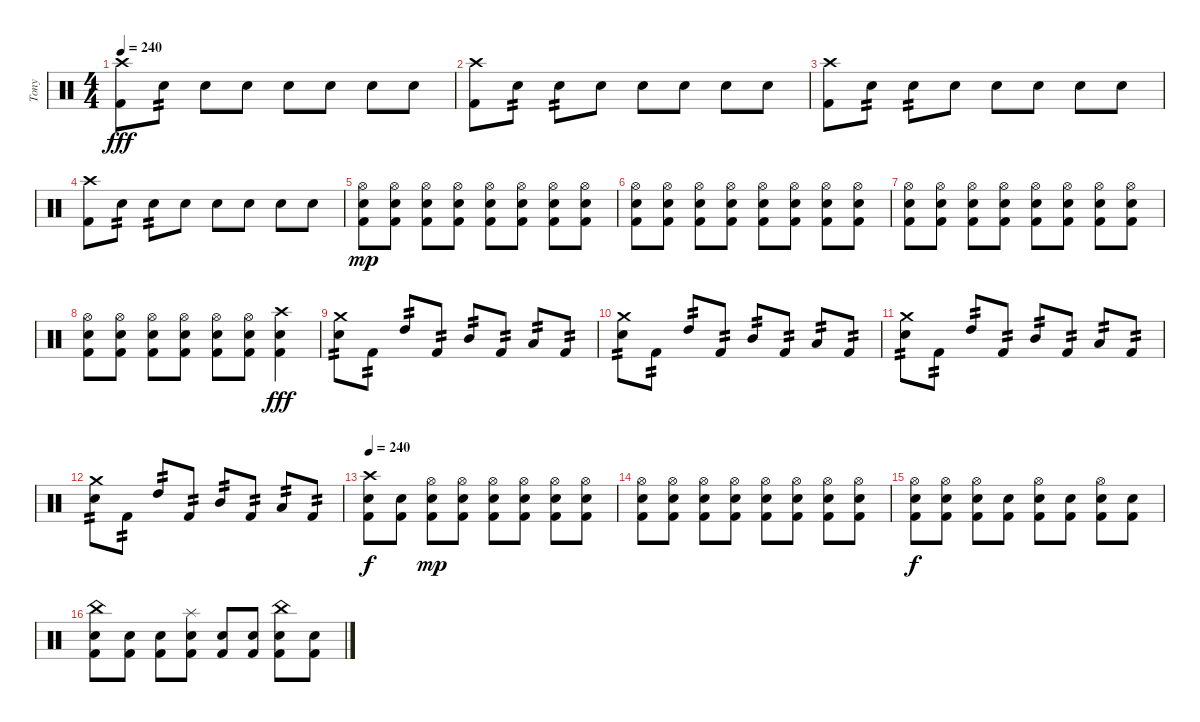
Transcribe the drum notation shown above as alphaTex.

\track ("Tony" "Tony") {instrument percussion}
\staff {score}
\articulation defaults
\ts (4 4)
\tempo 240
\clef neutral
\ks c
("Crash high (hit)" "Kick (hit) 2").8{dy fff} "Snare (hit) 2".8{tp 2} "Snare (hit) 2".8 "Snare (hit) 2".8 "Snare (hit) 2".8 "Snare (hit) 2".8 "Snare (hit) 2".8 "Snare (hit) 2".8 |
("Crash high (hit)" "Kick (hit) 2").8 "Snare (hit) 2".8{tp 2} "Snare (hit) 2".8{tp 2} "Snare (hit) 2".8 "Snare (hit) 2".8 "Snare (hit) 2".8 "Snare (hit) 2".8 "Snare (hit) 2".8 |
("Crash high (hit)" "Kick (hit) 2").8 "Snare (hit) 2".8{tp 2} "Snare (hit) 2".8{tp 2} "Snare (hit) 2".8 "Snare (hit) 2".8 "Snare (hit) 2".8 "Snare (hit) 2".8 "Snare (hit) 2".8 |
("Crash high (hit)" "Kick (hit) 2").8 "Snare (hit) 2".8{tp 2} "Snare (hit) 2".8{tp 2} "Snare (hit) 2".8 "Snare (hit) 2".8 "Snare (hit) 2".8 "Snare (hit) 2".8 "Snare (hit) 2".8 |
("Hi-Hat (open)" "Snare (hit) 2" "Kick (hit) 2").8{dy mp} ("Hi-Hat (open)" "Snare (hit) 2" "Kick (hit) 2").8 ("Hi-Hat (open)" "Snare (hit) 2" "Kick (hit) 2").8 ("Hi-Hat (open)" "Snare (hit) 2" "Kick (hit) 2").8 ("Hi-Hat (open)" "Snare (hit) 2" "Kick (hit) 2").8 ("Hi-Hat (open)" "Snare (hit) 2" "Kick (hit) 2").8 ("Hi-Hat (open)" "Snare (hit) 2" "Kick (hit) 2").8 ("Hi-Hat (open)" "Snare (hit) 2" "Kick (hit) 2").8 |
("Hi-Hat (open)" "Snare (hit) 2" "Kick (hit) 2").8 ("Hi-Hat (open)" "Snare (hit) 2" "Kick (hit) 2").8 ("Hi-Hat (open)" "Snare (hit) 2" "Kick (hit) 2").8 ("Hi-Hat (open)" "Snare (hit) 2" "Kick (hit) 2").8 ("Hi-Hat (open)" "Snare (hit) 2" "Kick (hit) 2").8 ("Hi-Hat (open)" "Snare (hit) 2" "Kick (hit) 2").8 ("Hi-Hat (open)" "Snare (hit) 2" "Kick (hit) 2").8 ("Hi-Hat (open)" "Snare (hit) 2" "Kick (hit) 2").8 |
("Hi-Hat (open)" "Snare (hit) 2" "Kick (hit) 2").8 ("Hi-Hat (open)" "Snare (hit) 2" "Kick (hit) 2").8 ("Hi-Hat (open)" "Snare (hit) 2" "Kick (hit) 2").8 ("Hi-Hat (open)" "Snare (hit) 2" "Kick (hit) 2").8 ("Hi-Hat (open)" "Snare (hit) 2" "Kick (hit) 2").8 ("Hi-Hat (open)" "Snare (hit) 2" "Kick (hit) 2").8 ("Hi-Hat (open)" "Snare (hit) 2" "Kick (hit) 2").8 ("Hi-Hat (open)" "Snare (hit) 2" "Kick (hit) 2").8 |
("Hi-Hat (open)" "Snare (hit) 2" "Kick (hit) 2").8 ("Hi-Hat (open)" "Snare (hit) 2" "Kick (hit) 2").8 ("Hi-Hat (open)" "Snare (hit) 2" "Kick (hit) 2").8 ("Hi-Hat (open)" "Snare (hit) 2" "Kick (hit) 2").8 ("Hi-Hat (open)" "Snare (hit) 2" "Kick (hit) 2").8 ("Hi-Hat (open)" "Snare (hit) 2" "Kick (hit) 2").8 ("Crash high (hit)" "Snare (hit) 2" "Kick (hit) 2").4{dy fff} |
("Crash medium (hit)" "Snare (hit) 2").8{tp 2} "Kick (hit) 2".8{tp 2} "High Tom (hit)".8{tp 2} "Kick (hit) 2".8{tp 2} "Mid Tom (hit)".8{tp 2} "Kick (hit) 2".8{tp 2} "Low Tom (hit)".8{tp 2} "Kick (hit) 2".8{tp 2} |
("Crash medium (hit)" "Snare (hit) 2").8{tp 2} "Kick (hit) 2".8{tp 2} "High Tom (hit)".8{tp 2} "Kick (hit) 2".8{tp 2} "Mid Tom (hit)".8{tp 2} "Kick (hit) 2".8{tp 2} "Low Tom (hit)".8{tp 2} "Kick (hit) 2".8{tp 2} |
("Crash medium (hit)" "Snare (hit) 2").8{tp 2} "Kick (hit) 2".8{tp 2} "High Tom (hit)".8{tp 2} "Kick (hit) 2".8{tp 2} "Mid Tom (hit)".8{tp 2} "Kick (hit) 2".8{tp 2} "Low Tom (hit)".8{tp 2} "Kick (hit) 2".8{tp 2} |
("Crash medium (hit)" "Snare (hit) 2").8{tp 2} "Kick (hit) 2".8{tp 2} "High Tom (hit)".8{tp 2} "Kick (hit) 2".8{tp 2} "Mid Tom (hit)".8{tp 2} "Kick (hit) 2".8{tp 2} "Low Tom (hit)".8{tp 2} "Kick (hit) 2".8{tp 2} |
\tempo 240
("Crash high (hit)" "Snare (hit) 2" "Kick (hit) 2").8{dy f} ("Snare (hit) 2" "Kick (hit) 2").8 ("Hi-Hat (open)" "Snare (hit) 2" "Kick (hit) 2").8{dy mp} ("Hi-Hat (open)" "Snare (hit) 2" "Kick (hit) 2").8 ("Hi-Hat (open)" "Snare (hit) 2" "Kick (hit) 2").8 ("Hi-Hat (open)" "Snare (hit) 2" "Kick (hit) 2").8 ("Hi-Hat (open)" "Snare (hit) 2" "Kick (hit) 2").8 ("Hi-Hat (open)" "Snare (hit) 2" "Kick (hit) 2").8 |
("Hi-Hat (open)" "Snare (hit) 2" "Kick (hit) 2").8 ("Hi-Hat (open)" "Snare (hit) 2" "Kick (hit) 2").8 ("Hi-Hat (open)" "Snare (hit) 2" "Kick (hit) 2").8 ("Hi-Hat (open)" "Snare (hit) 2" "Kick (hit) 2").8 ("Hi-Hat (open)" "Snare (hit) 2" "Kick (hit) 2").8 ("Hi-Hat (open)" "Snare (hit) 2" "Kick (hit) 2").8 ("Hi-Hat (open)" "Snare (hit) 2" "Kick (hit) 2").8 ("Hi-Hat (open)" "Snare (hit) 2" "Kick (hit) 2").8 |
("Hi-Hat (open)" "Snare (hit) 2" "Kick (hit) 2").8{dy f} ("Hi-Hat (open)" "Snare (hit) 2" "Kick (hit) 2").8 ("Hi-Hat (open)" "Snare (hit) 2" "Kick (hit) 2").8 ("Snare (hit) 2" "Kick (hit) 2").8 ("Hi-Hat (open)" "Snare (hit) 2" "Kick (hit) 2").8 ("Snare (hit) 2" "Kick (hit) 2").8 ("Hi-Hat (open)" "Snare (hit) 2" "Kick (hit) 2").8 ("Snare (hit) 2" "Kick (hit) 2").8 |
("China (hit)" "Snare (hit) 2" "Kick (hit) 2").8 ("Snare (hit) 2" "Kick (hit) 2").8 ("Snare (hit) 2" "Kick (hit) 2").8 ("Splash (hit)" "Snare (hit) 2" "Kick (hit) 2").8 ("Snare (hit) 2" "Kick (hit) 2").8 ("Snare (hit) 2" "Kick (hit) 2").8 ("China (hit)" "Snare (hit) 2" "Kick (hit) 2").8 ("Snare (hit) 2" "Kick (hit) 2").8
